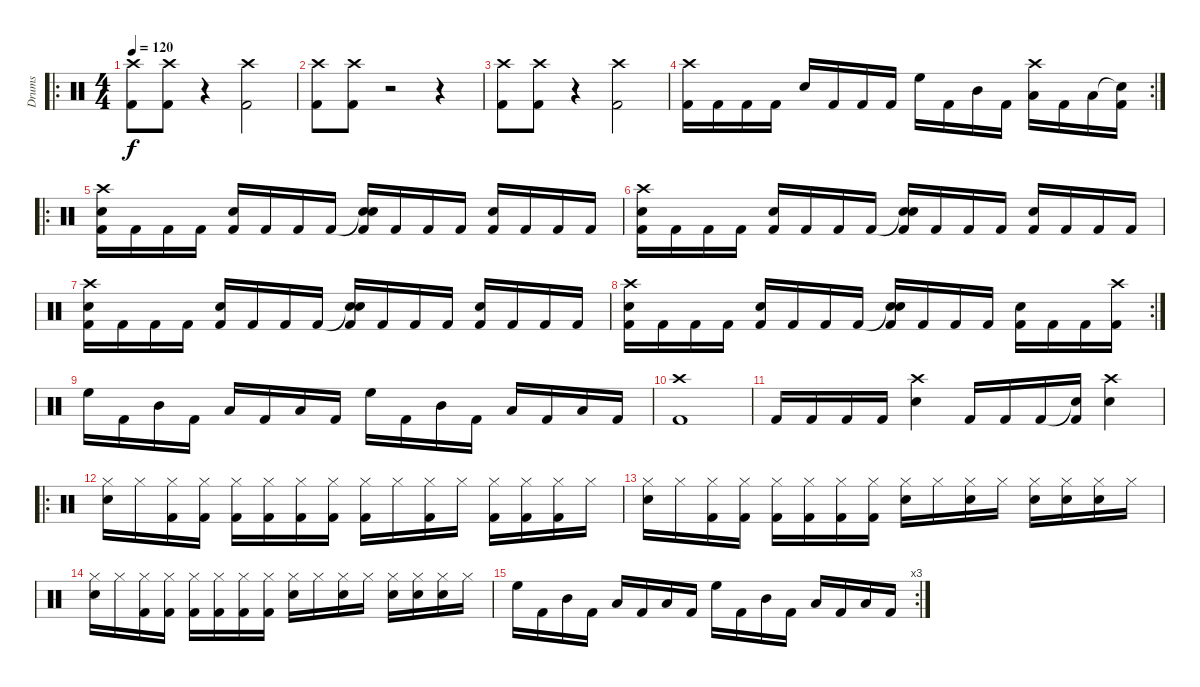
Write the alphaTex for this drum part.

\track ("Drums" "Drums") {instrument percussion}
\staff {score}
\articulation defaults
\ro
\ts (4 4)
\tempo 120
\clef neutral
\ks c
("Crash high (hit)" "Kick (hit) 2").8{dy f} ("Crash high (hit)" "Kick (hit) 2").8 r.4 ("Crash high (hit)" "Kick (hit) 2").2 |
("Crash high (hit)" "Kick (hit) 2").8 ("Crash high (hit)" "Kick (hit) 2").8 r.2 r.4 |
("Crash high (hit)" "Kick (hit) 2").8 ("Crash high (hit)" "Kick (hit) 2").8 r.4 ("Crash high (hit)" "Kick (hit) 2").2 |
\rc 2
("Crash high (hit)" "Kick (hit) 2").16 "Kick (hit) 2".16 "Kick (hit) 2".16 "Kick (hit) 2".16 "Snare (hit) 2".16 "Kick (hit) 2".16 "Kick (hit) 2".16 "Kick (hit) 2".16 "High Floor Tom (hit)".16 "Kick (hit) 2".16 "Mid Tom (hit)".16 "Kick (hit) 2".16 ("Crash high (hit)" "Low Tom (hit)").16 "Kick (hit) 2".16 "Low Floor Tom (hit)".16 ("Snare (hit)"{t} "Kick (hit) 2").16 |
\ro
("Crash high (hit)" "Snare (hit) 2" "Kick (hit) 2").16 "Kick (hit) 2".16 "Kick (hit) 2".16 "Kick (hit) 2".16 ("Snare (hit) 2" "Kick (hit) 2").16 "Kick (hit) 2".16 "Kick (hit) 2".16 "Kick (hit) 2".16 ("Snare (hit)"{t} "Snare (hit) 2" "Kick (hit) 2").16 "Kick (hit) 2".16 "Kick (hit) 2".16 "Kick (hit) 2".16 ("Snare (hit) 2" "Kick (hit) 2").16 "Kick (hit) 2".16 "Kick (hit) 2".16 "Kick (hit) 2".16 |
("Crash high (hit)" "Snare (hit) 2" "Kick (hit) 2").16 "Kick (hit) 2".16 "Kick (hit) 2".16 "Kick (hit) 2".16 ("Snare (hit) 2" "Kick (hit) 2").16 "Kick (hit) 2".16 "Kick (hit) 2".16 "Kick (hit) 2".16 ("Snare (hit)"{t} "Snare (hit) 2" "Kick (hit) 2").16 "Kick (hit) 2".16 "Kick (hit) 2".16 "Kick (hit) 2".16 ("Snare (hit) 2" "Kick (hit) 2").16 "Kick (hit) 2".16 "Kick (hit) 2".16 "Kick (hit) 2".16 |
("Crash high (hit)" "Snare (hit) 2" "Kick (hit) 2").16 "Kick (hit) 2".16 "Kick (hit) 2".16 "Kick (hit) 2".16 ("Snare (hit) 2" "Kick (hit) 2").16 "Kick (hit) 2".16 "Kick (hit) 2".16 "Kick (hit) 2".16 ("Snare (hit)"{t} "Snare (hit) 2" "Kick (hit) 2").16 "Kick (hit) 2".16 "Kick (hit) 2".16 "Kick (hit) 2".16 ("Snare (hit) 2" "Kick (hit) 2").16 "Kick (hit) 2".16 "Kick (hit) 2".16 "Kick (hit) 2".16 |
\rc 2
("Crash high (hit)" "Snare (hit) 2" "Kick (hit) 2").16 "Kick (hit) 2".16 "Kick (hit) 2".16 "Kick (hit) 2".16 ("Snare (hit) 2" "Kick (hit) 2").16 "Kick (hit) 2".16 "Kick (hit) 2".16 "Kick (hit) 2".16 ("Snare (hit)"{t} "Snare (hit) 2" "Kick (hit) 2").16 "Kick (hit) 2".16 "Kick (hit) 2".16 "Kick (hit) 2".16 ("Snare (hit) 2" "Kick (hit) 2").16 "Kick (hit) 2".16 "Kick (hit) 2".16 ("Crash high (hit)" "Kick (hit) 2").16 |
"High Floor Tom (hit)".16 "Kick (hit) 2".16 "Mid Tom (hit)".16 "Kick (hit) 2".16 "Low Tom (hit)".16 "Kick (hit) 2".16 "Low Floor Tom (hit)".16 "Kick (hit) 2".16 "High Floor Tom (hit)".16 "Kick (hit) 2".16 "Mid Tom (hit)".16 "Kick (hit) 2".16 "Low Tom (hit)".16 "Kick (hit) 2".16 "Low Floor Tom (hit)".16 "Kick (hit) 2".16 |
("Crash high (hit)" "Kick (hit) 2").1 |
"Kick (hit) 2".16 "Kick (hit) 2".16 "Kick (hit) 2".16 "Kick (hit) 2".16 ("Crash high (hit)" "Snare (hit) 2").4 "Kick (hit) 2".16 "Kick (hit) 2".16 "Kick (hit) 2".16 ("Snare (hit)"{t} "Kick (hit) 2").16 ("Crash high (hit)" "Snare (hit) 2").4 |
\ro
("Hi-Hat (closed)" "Snare (hit) 2").16 "Hi-Hat (closed)".16 ("Hi-Hat (closed)" "Kick (hit) 2").16 ("Hi-Hat (closed)" "Kick (hit) 2").16 ("Hi-Hat (closed)" "Kick (hit) 2").16 ("Hi-Hat (closed)" "Kick (hit) 2").16 ("Hi-Hat (closed)" "Kick (hit) 2").16 ("Hi-Hat (closed)" "Kick (hit) 2").16 ("Hi-Hat (closed)" "Kick (hit) 2").16 "Hi-Hat (closed)".16 ("Hi-Hat (closed)" "Kick (hit) 2").16 "Hi-Hat (closed)".16 ("Hi-Hat (closed)" "Kick (hit) 2").16 ("Hi-Hat (closed)" "Kick (hit) 2").16 ("Hi-Hat (closed)" "Kick (hit) 2").16 "Hi-Hat (closed)".16 |
("Hi-Hat (closed)" "Snare (hit) 2").16 "Hi-Hat (closed)".16 ("Hi-Hat (closed)" "Kick (hit) 2").16 ("Hi-Hat (closed)" "Kick (hit) 2").16 ("Hi-Hat (closed)" "Kick (hit) 2").16 ("Hi-Hat (closed)" "Kick (hit) 2").16 ("Hi-Hat (closed)" "Kick (hit) 2").16 ("Hi-Hat (closed)" "Kick (hit) 2").16 ("Hi-Hat (closed)" "Snare (hit) 2").16 "Hi-Hat (closed)".16 ("Hi-Hat (closed)" "Snare (hit) 2").16 "Hi-Hat (closed)".16 ("Hi-Hat (closed)" "Snare (hit) 2").16 ("Hi-Hat (closed)" "Snare (hit) 2").16 ("Hi-Hat (closed)" "Snare (hit) 2").16 "Hi-Hat (closed)".16 |
("Hi-Hat (closed)" "Snare (hit) 2").16 "Hi-Hat (closed)".16 ("Hi-Hat (closed)" "Kick (hit) 2").16 ("Hi-Hat (closed)" "Kick (hit) 2").16 ("Hi-Hat (closed)" "Kick (hit) 2").16 ("Hi-Hat (closed)" "Kick (hit) 2").16 ("Hi-Hat (closed)" "Kick (hit) 2").16 ("Hi-Hat (closed)" "Kick (hit) 2").16 ("Hi-Hat (closed)" "Snare (hit) 2").16 "Hi-Hat (closed)".16 ("Hi-Hat (closed)" "Snare (hit) 2").16 "Hi-Hat (closed)".16 ("Hi-Hat (closed)" "Snare (hit) 2").16 ("Hi-Hat (closed)" "Snare (hit) 2").16 ("Hi-Hat (closed)" "Snare (hit) 2").16 "Hi-Hat (closed)".16 |
\rc 3 "High Floor Tom (hit)".16 "Kick (hit) 2".16 "Mid Tom (hit)".16 "Kick (hit) 2".16 "Low Tom (hit)".16 "Kick (hit) 2".16 "Low Floor Tom (hit)".16 "Kick (hit) 2".16 "High Floor Tom (hit)".16 "Kick (hit) 2".16 "Mid Tom (hit)".16 "Kick (hit) 2".16 "Low Tom (hit)".16 "Kick (hit) 2".16 "Low Floor Tom (hit)".16 "Kick (hit) 2".16
